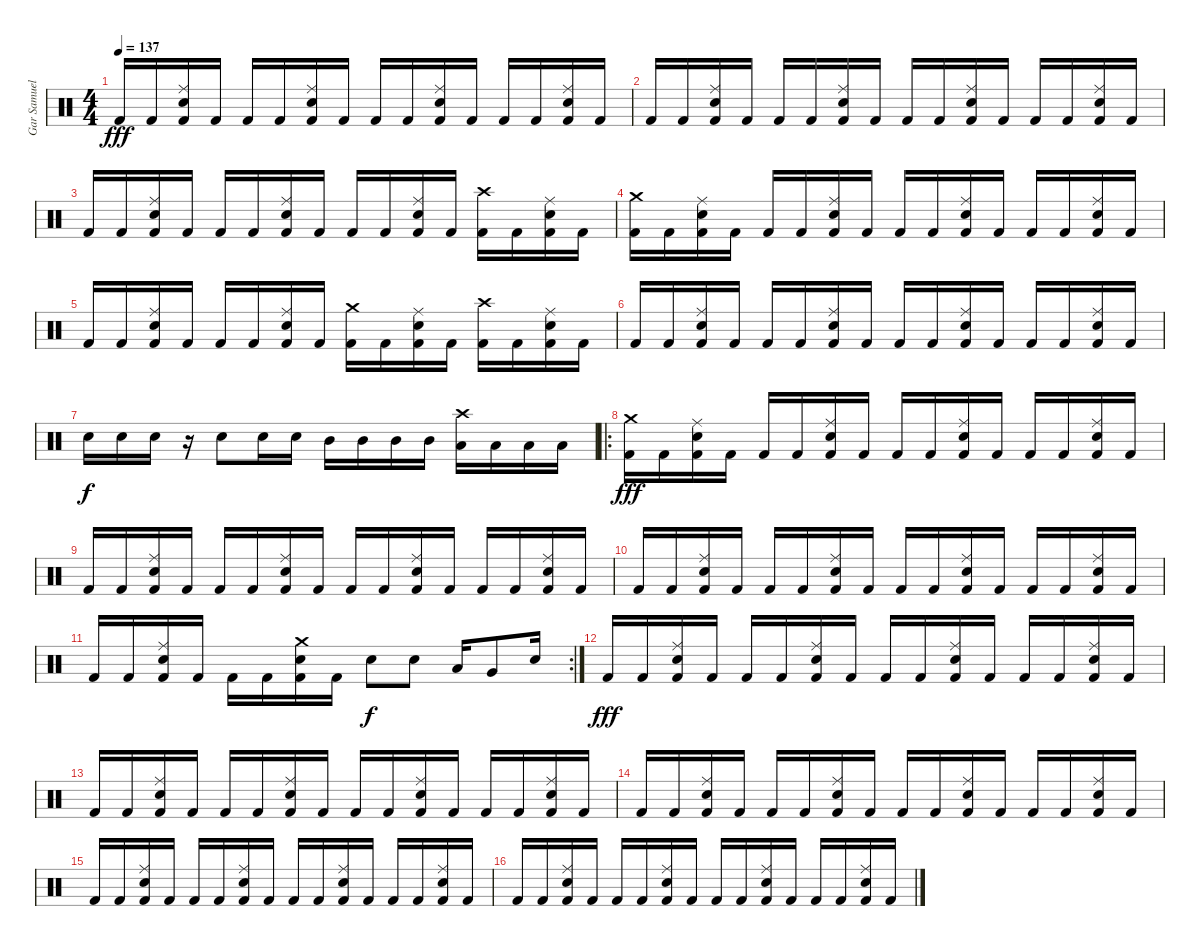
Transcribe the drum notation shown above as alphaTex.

\track ("Gar Samuelson" "Gar Samuel") {instrument percussion}
\staff {score}
\articulation defaults
\ts (4 4)
\tempo 137
\clef neutral
\ks c "Kick (hit) 2".16{dy fff} "Kick (hit) 2".16
("Ride (middle)" "Electric Snare (hit)" "Kick (hit) 2").16 "Kick (hit) 2".16 "Kick (hit) 2".16 "Kick (hit) 2".16 ("Ride (middle)" "Electric Snare (hit)" "Kick (hit) 2").16 "Kick (hit) 2".16 "Kick (hit) 2".16 "Kick (hit) 2".16 ("Ride (middle)" "Electric Snare (hit)" "Kick (hit) 2").16 "Kick (hit) 2".16 "Kick (hit) 2".16 "Kick (hit) 2".16 ("Ride (middle)" "Electric Snare (hit)" "Kick (hit) 2").16 "Kick (hit) 2".16 |
"Kick (hit) 2".16 "Kick (hit) 2".16 ("Ride (middle)" "Electric Snare (hit)" "Kick (hit) 2").16 "Kick (hit) 2".16 "Kick (hit) 2".16 "Kick (hit) 2".16 ("Ride (middle)" "Electric Snare (hit)" "Kick (hit) 2").16 "Kick (hit) 2".16 "Kick (hit) 2".16 "Kick (hit) 2".16 ("Ride (middle)" "Electric Snare (hit)" "Kick (hit) 2").16 "Kick (hit) 2".16 "Kick (hit) 2".16 "Kick (hit) 2".16 ("Ride (middle)" "Electric Snare (hit)" "Kick (hit) 2").16 "Kick (hit) 2".16 |
"Kick (hit) 2".16 "Kick (hit) 2".16 ("Ride (middle)" "Electric Snare (hit)" "Kick (hit) 2").16 "Kick (hit) 2".16 "Kick (hit) 2".16 "Kick (hit) 2".16 ("Ride (middle)" "Electric Snare (hit)" "Kick (hit) 2").16 "Kick (hit) 2".16 "Kick (hit) 2".16 "Kick (hit) 2".16 ("Ride (middle)" "Electric Snare (hit)" "Kick (hit) 2").16 "Kick (hit) 2".16 ("Crash high (hit)" "Kick (hit) 2").16 "Kick (hit) 2".16 ("Ride (middle)" "Electric Snare (hit)" "Kick (hit) 2").16 "Kick (hit) 2".16 |
("Crash medium (hit)" "Kick (hit) 2").16 "Kick (hit) 2".16 ("Ride (middle)" "Electric Snare (hit)" "Kick (hit) 2").16 "Kick (hit) 2".16 "Kick (hit) 2".16 "Kick (hit) 2".16 ("Ride (middle)" "Electric Snare (hit)" "Kick (hit) 2").16 "Kick (hit) 2".16 "Kick (hit) 2".16 "Kick (hit) 2".16 ("Ride (middle)" "Electric Snare (hit)" "Kick (hit) 2").16 "Kick (hit) 2".16 "Kick (hit) 2".16 "Kick (hit) 2".16 ("Ride (middle)" "Electric Snare (hit)" "Kick (hit) 2").16 "Kick (hit) 2".16 |
"Kick (hit) 2".16 "Kick (hit) 2".16 ("Ride (middle)" "Electric Snare (hit)" "Kick (hit) 2").16 "Kick (hit) 2".16 "Kick (hit) 2".16 "Kick (hit) 2".16 ("Ride (middle)" "Electric Snare (hit)" "Kick (hit) 2").16 "Kick (hit) 2".16 ("Crash medium (hit)" "Kick (hit) 2").16 "Kick (hit) 2".16 ("Ride (middle)" "Electric Snare (hit)" "Kick (hit) 2").16 "Kick (hit) 2".16 ("Crash high (hit)" "Kick (hit) 2").16 "Kick (hit) 2".16 ("Ride (middle)" "Electric Snare (hit)" "Kick (hit) 2").16 "Kick (hit) 2".16 |
"Kick (hit) 2".16 "Kick (hit) 2".16 ("Ride (middle)" "Electric Snare (hit)" "Kick (hit) 2").16 "Kick (hit) 2".16 "Kick (hit) 2".16 "Kick (hit) 2".16 ("Ride (middle)" "Electric Snare (hit)" "Kick (hit) 2").16 "Kick (hit) 2".16 "Kick (hit) 2".16 "Kick (hit) 2".16 ("Ride (middle)" "Electric Snare (hit)" "Kick (hit) 2").16 "Kick (hit) 2".16 "Kick (hit) 2".16 "Kick (hit) 2".16 ("Ride (middle)" "Electric Snare (hit)" "Kick (hit) 2").16 "Kick (hit) 2".16 |
"Snare (hit) 2".16{dy f} "Snare (hit) 2".16 "Snare (hit) 2".16 r.16 "Electric Snare (hit)".8 "Snare (hit) 2".16 "Snare (hit) 2".16 "Mid Tom (hit)".16 "Mid Tom (hit)".16 "Mid Tom (hit)".16 "Mid Tom (hit)".16 ("Crash high (hit)" "Low Tom (hit)").16 "Low Tom (hit)".16 "Low Tom (hit)".16 "Low Tom (hit)".16 |
\ro
("Crash medium (hit)" "Kick (hit) 2").16{dy fff} "Kick (hit) 2".16 ("Ride (middle)" "Electric Snare (hit)" "Kick (hit) 2").16 "Kick (hit) 2".16 "Kick (hit) 2".16 "Kick (hit) 2".16 ("Ride (middle)" "Electric Snare (hit)" "Kick (hit) 2").16 "Kick (hit) 2".16 "Kick (hit) 2".16 "Kick (hit) 2".16 ("Ride (middle)" "Electric Snare (hit)" "Kick (hit) 2").16 "Kick (hit) 2".16 "Kick (hit) 2".16 "Kick (hit) 2".16 ("Ride (middle)" "Electric Snare (hit)" "Kick (hit) 2").16 "Kick (hit) 2".16 |
"Kick (hit) 2".16 "Kick (hit) 2".16 ("Ride (middle)" "Electric Snare (hit)" "Kick (hit) 2").16 "Kick (hit) 2".16 "Kick (hit) 2".16 "Kick (hit) 2".16 ("Ride (middle)" "Electric Snare (hit)" "Kick (hit) 2").16 "Kick (hit) 2".16 "Kick (hit) 2".16 "Kick (hit) 2".16 ("Ride (middle)" "Electric Snare (hit)" "Kick (hit) 2").16 "Kick (hit) 2".16 "Kick (hit) 2".16 "Kick (hit) 2".16 ("Ride (middle)" "Electric Snare (hit)" "Kick (hit) 2").16 "Kick (hit) 2".16 |
"Kick (hit) 2".16 "Kick (hit) 2".16 ("Ride (middle)" "Electric Snare (hit)" "Kick (hit) 2").16 "Kick (hit) 2".16 "Kick (hit) 2".16 "Kick (hit) 2".16 ("Ride (middle)" "Electric Snare (hit)" "Kick (hit) 2").16 "Kick (hit) 2".16 "Kick (hit) 2".16 "Kick (hit) 2".16 ("Ride (middle)" "Electric Snare (hit)" "Kick (hit) 2").16 "Kick (hit) 2".16 "Kick (hit) 2".16 "Kick (hit) 2".16 ("Ride (middle)" "Electric Snare (hit)" "Kick (hit) 2").16 "Kick (hit) 2".16 |
\rc 2 "Kick (hit) 2".16 "Kick (hit) 2".16
("Ride (middle)" "Electric Snare (hit)" "Kick (hit) 2").16 "Kick (hit) 2".16 "Kick (hit) 2".16 "Kick (hit) 2".16 ("Crash medium (hit)" "Electric Snare (hit)" "Kick (hit) 2").16 "Kick (hit) 2".16 "Electric Snare (hit)".8{dy f} "Electric Snare (hit)".8 "Low Tom (hit)".16 "Very Low Tom (hit)".8 "Electric Snare (hit)".16 |
"Kick (hit) 2".16{dy fff} "Kick (hit) 2".16 ("Ride (middle)" "Electric Snare (hit)" "Kick (hit) 2").16 "Kick (hit) 2".16 "Kick (hit) 2".16 "Kick (hit) 2".16 ("Ride (middle)" "Electric Snare (hit)" "Kick (hit) 2").16 "Kick (hit) 2".16 "Kick (hit) 2".16 "Kick (hit) 2".16 ("Ride (middle)" "Electric Snare (hit)" "Kick (hit) 2").16 "Kick (hit) 2".16 "Kick (hit) 2".16 "Kick (hit) 2".16 ("Ride (middle)" "Electric Snare (hit)" "Kick (hit) 2").16 "Kick (hit) 2".16 |
"Kick (hit) 2".16 "Kick (hit) 2".16 ("Ride (middle)" "Electric Snare (hit)" "Kick (hit) 2").16 "Kick (hit) 2".16 "Kick (hit) 2".16 "Kick (hit) 2".16 ("Ride (middle)" "Electric Snare (hit)" "Kick (hit) 2").16 "Kick (hit) 2".16 "Kick (hit) 2".16 "Kick (hit) 2".16 ("Ride (middle)" "Electric Snare (hit)" "Kick (hit) 2").16 "Kick (hit) 2".16 "Kick (hit) 2".16 "Kick (hit) 2".16 ("Ride (middle)" "Electric Snare (hit)" "Kick (hit) 2").16 "Kick (hit) 2".16 |
"Kick (hit) 2".16 "Kick (hit) 2".16 ("Ride (middle)" "Electric Snare (hit)" "Kick (hit) 2").16 "Kick (hit) 2".16 "Kick (hit) 2".16 "Kick (hit) 2".16 ("Ride (middle)" "Electric Snare (hit)" "Kick (hit) 2").16 "Kick (hit) 2".16 "Kick (hit) 2".16 "Kick (hit) 2".16 ("Ride (middle)" "Electric Snare (hit)" "Kick (hit) 2").16 "Kick (hit) 2".16 "Kick (hit) 2".16 "Kick (hit) 2".16 ("Ride (middle)" "Electric Snare (hit)" "Kick (hit) 2").16 "Kick (hit) 2".16 |
"Kick (hit) 2".16 "Kick (hit) 2".16 ("Ride (middle)" "Electric Snare (hit)" "Kick (hit) 2").16 "Kick (hit) 2".16 "Kick (hit) 2".16 "Kick (hit) 2".16 ("Ride (middle)" "Electric Snare (hit)" "Kick (hit) 2").16 "Kick (hit) 2".16 "Kick (hit) 2".16 "Kick (hit) 2".16 ("Ride (middle)" "Electric Snare (hit)" "Kick (hit) 2").16 "Kick (hit) 2".16 "Kick (hit) 2".16 "Kick (hit) 2".16 ("Ride (middle)" "Electric Snare (hit)" "Kick (hit) 2").16 "Kick (hit) 2".16 |
"Kick (hit) 2".16 "Kick (hit) 2".16 ("Ride (middle)" "Electric Snare (hit)" "Kick (hit) 2").16 "Kick (hit) 2".16 "Kick (hit) 2".16 "Kick (hit) 2".16 ("Ride (middle)" "Electric Snare (hit)" "Kick (hit) 2").16 "Kick (hit) 2".16 "Kick (hit) 2".16 "Kick (hit) 2".16 ("Ride (middle)" "Electric Snare (hit)" "Kick (hit) 2").16 "Kick (hit) 2".16 "Kick (hit) 2".16 "Kick (hit) 2".16 ("Ride (middle)" "Electric Snare (hit)" "Kick (hit) 2").16 "Kick (hit) 2".16
